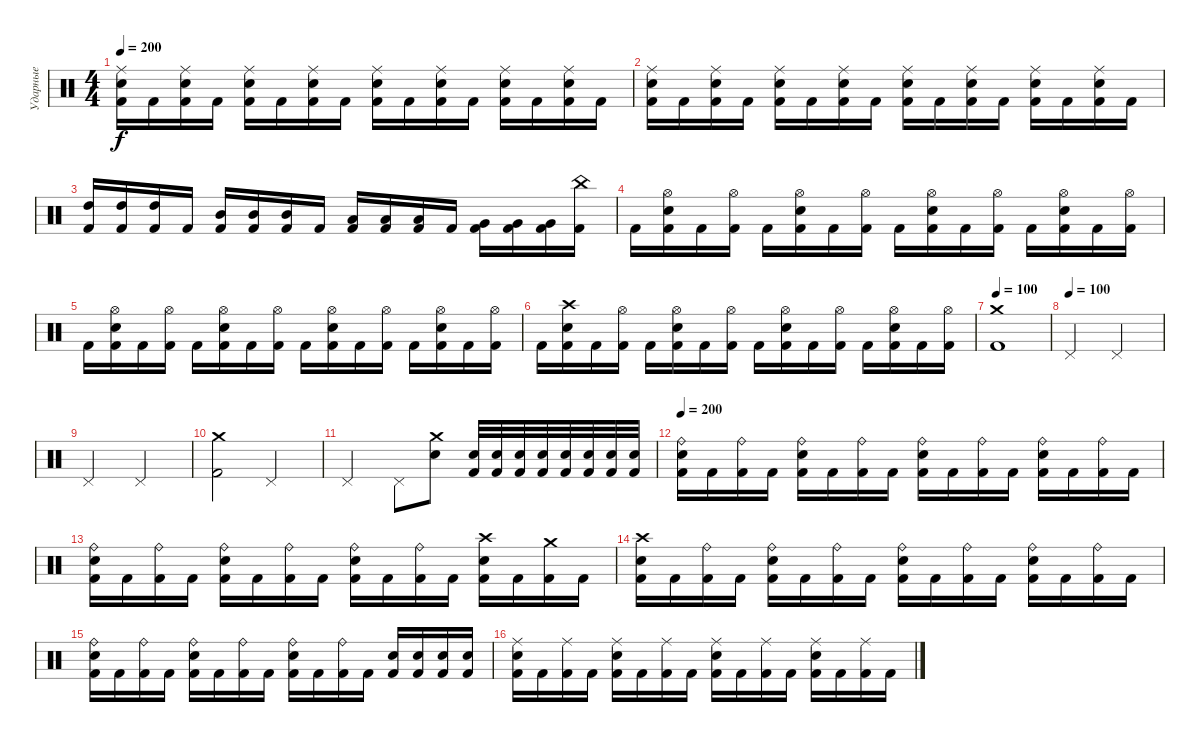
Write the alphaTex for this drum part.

\track ("Ударные" "Ударные") {instrument percussion}
\staff {score}
\articulation defaults
\ts (4 4)
\tempo 200
\clef neutral
\ks c
("Ride (middle)" "Snare (hit) 2" "Kick (hit) 2").16{dy f} "Kick (hit) 2".16 ("Ride (middle)" "Snare (hit) 2" "Kick (hit) 2").16 "Kick (hit) 2".16 ("Ride (middle)" "Snare (hit) 2" "Kick (hit) 2").16 "Kick (hit) 2".16 ("Ride (middle)" "Snare (hit) 2" "Kick (hit) 2").16 "Kick (hit) 2".16 ("Ride (middle)" "Snare (hit) 2" "Kick (hit) 2").16 "Kick (hit) 2".16 ("Ride (middle)" "Snare (hit) 2" "Kick (hit) 2").16 "Kick (hit) 2".16 ("Ride (middle)" "Snare (hit) 2" "Kick (hit) 2").16 "Kick (hit) 2".16 ("Ride (middle)" "Snare (hit) 2" "Kick (hit) 2").16 "Kick (hit) 2".16 |
("Ride (middle)" "Snare (hit) 2" "Kick (hit) 2").16 "Kick (hit) 2".16 ("Ride (middle)" "Snare (hit) 2" "Kick (hit) 2").16 "Kick (hit) 2".16 ("Ride (middle)" "Snare (hit) 2" "Kick (hit) 2").16 "Kick (hit) 2".16 ("Ride (middle)" "Snare (hit) 2" "Kick (hit) 2").16 "Kick (hit) 2".16 ("Ride (middle)" "Snare (hit) 2" "Kick (hit) 2").16 "Kick (hit) 2".16 ("Ride (middle)" "Snare (hit) 2" "Kick (hit) 2").16 "Kick (hit) 2".16 ("Ride (middle)" "Snare (hit) 2" "Kick (hit) 2").16 "Kick (hit) 2".16 ("Ride (middle)" "Snare (hit) 2" "Kick (hit) 2").16 "Kick (hit) 2".16 |
("High Tom (hit)" "Kick (hit) 2").16 ("High Tom (hit)" "Kick (hit) 2").16 ("High Tom (hit)" "Kick (hit) 2").16 "Kick (hit) 2".16 ("Mid Tom (hit)" "Kick (hit) 2").16 ("Mid Tom (hit)" "Kick (hit) 2").16 ("Mid Tom (hit)" "Kick (hit) 2").16 "Kick (hit) 2".16 ("Low Tom (hit)" "Kick (hit) 2").16 ("Low Tom (hit)" "Kick (hit) 2").16 ("Low Tom (hit)" "Kick (hit) 2").16 "Kick (hit) 2".16 ("Very Low Tom (hit)" "Kick (hit) 2").16 ("Very Low Tom (hit)" "Kick (hit) 2").16 ("Very Low Tom (hit)" "Kick (hit) 2").16 ("China (hit)" "Kick (hit) 2").16 |
"Kick (hit) 2".16 ("Hi-Hat (open)" "Snare (hit) 2" "Kick (hit) 2").16 "Kick (hit) 2".16 ("Hi-Hat (open)" "Kick (hit) 2").16 "Kick (hit) 2".16 ("Hi-Hat (open)" "Snare (hit) 2" "Kick (hit) 2").16 "Kick (hit) 2".16 ("Hi-Hat (open)" "Kick (hit) 2").16 "Kick (hit) 2".16 ("Hi-Hat (open)" "Snare (hit) 2" "Kick (hit) 2").16 "Kick (hit) 2".16 ("Hi-Hat (open)" "Kick (hit) 2").16 "Kick (hit) 2".16 ("Hi-Hat (open)" "Snare (hit) 2" "Kick (hit) 2").16 "Kick (hit) 2".16 ("Hi-Hat (open)" "Kick (hit) 2").16 |
"Kick (hit) 2".16 ("Hi-Hat (open)" "Snare (hit) 2" "Kick (hit) 2").16 "Kick (hit) 2".16 ("Hi-Hat (open)" "Kick (hit) 2").16 "Kick (hit) 2".16 ("Hi-Hat (open)" "Snare (hit) 2" "Kick (hit) 2").16 "Kick (hit) 2".16 ("Hi-Hat (open)" "Kick (hit) 2").16 "Kick (hit) 2".16 ("Hi-Hat (open)" "Snare (hit) 2" "Kick (hit) 2").16 "Kick (hit) 2".16 ("Hi-Hat (open)" "Kick (hit) 2").16 "Kick (hit) 2".16 ("Hi-Hat (open)" "Snare (hit) 2" "Kick (hit) 2").16 "Kick (hit) 2".16 ("Hi-Hat (open)" "Kick (hit) 2").16 |
"Kick (hit) 2".16 ("Crash high (hit)" "Snare (hit) 2" "Kick (hit) 2").16 "Kick (hit) 2".16 ("Hi-Hat (open)" "Kick (hit) 2").16 "Kick (hit) 2".16 ("Hi-Hat (open)" "Snare (hit) 2" "Kick (hit) 2").16 "Kick (hit) 2".16 ("Hi-Hat (open)" "Kick (hit) 2").16 "Kick (hit) 2".16 ("Hi-Hat (open)" "Snare (hit) 2" "Kick (hit) 2").16 "Kick (hit) 2".16 ("Hi-Hat (open)" "Kick (hit) 2").16 "Kick (hit) 2".16 ("Hi-Hat (open)" "Snare (hit) 2" "Kick (hit) 2").16 "Kick (hit) 2".16 ("Hi-Hat (open)" "Kick (hit) 2").16 |
\tempo 100
("Crash medium (hit)" "Kick (hit) 2").1 |
\tempo (100)
"Pedal Hi-Hat (hit)".2 "Pedal Hi-Hat (hit)".2 |
"Pedal Hi-Hat (hit)".2 "Pedal Hi-Hat (hit)".2 |
("Crash medium (hit)" "Kick (hit) 2").2 "Pedal Hi-Hat (hit)".2 |
"Pedal Hi-Hat (hit)".2 "Pedal Hi-Hat (hit)".8 ("Crash medium (hit)" "Snare (hit) 2").8 ("Snare (hit) 2" "Kick (hit) 2").32 ("Snare (hit) 2" "Kick (hit) 2").32 ("Snare (hit) 2" "Kick (hit) 2").32 ("Snare (hit) 2" "Kick (hit) 2").32 ("Snare (hit) 2" "Kick (hit) 2").32 ("Snare (hit) 2" "Kick (hit) 2").32 ("Snare (hit) 2" "Kick (hit) 2").32 ("Snare (hit) 2" "Kick (hit) 2").32 |
\tempo 200
("Ride (bell)" "Snare (hit) 2" "Kick (hit) 2").16 "Kick (hit) 2".16 ("Ride (bell)" "Kick (hit) 2").16 "Kick (hit) 2".16 ("Ride (bell)" "Snare (hit) 2" "Kick (hit) 2").16 "Kick (hit) 2".16 ("Ride (bell)" "Kick (hit) 2").16 "Kick (hit) 2".16 ("Ride (bell)" "Snare (hit) 2" "Kick (hit) 2").16 "Kick (hit) 2".16 ("Ride (bell)" "Kick (hit) 2").16 "Kick (hit) 2".16 ("Ride (bell)" "Snare (hit) 2" "Kick (hit) 2").16 "Kick (hit) 2".16 ("Ride (bell)" "Kick (hit) 2").16 "Kick (hit) 2".16 |
("Ride (bell)" "Snare (hit) 2" "Kick (hit) 2").16 "Kick (hit) 2".16 ("Ride (bell)" "Kick (hit) 2").16 "Kick (hit) 2".16 ("Ride (bell)" "Snare (hit) 2" "Kick (hit) 2").16 "Kick (hit) 2".16 ("Ride (bell)" "Kick (hit) 2").16 "Kick (hit) 2".16 ("Ride (bell)" "Snare (hit) 2" "Kick (hit) 2").16 "Kick (hit) 2".16 ("Ride (bell)" "Kick (hit) 2").16 "Kick (hit) 2".16 ("Crash high (hit)" "Snare (hit) 2" "Kick (hit) 2").16 "Kick (hit) 2".16 ("Crash medium (hit)" "Kick (hit) 2").16 "Kick (hit) 2".16 |
("Crash high (hit)" "Snare (hit) 2" "Kick (hit) 2").16 "Kick (hit) 2".16 ("Ride (bell)" "Kick (hit) 2").16 "Kick (hit) 2".16 ("Ride (bell)" "Snare (hit) 2" "Kick (hit) 2").16 "Kick (hit) 2".16 ("Ride (bell)" "Kick (hit) 2").16 "Kick (hit) 2".16 ("Ride (bell)" "Snare (hit) 2" "Kick (hit) 2").16 "Kick (hit) 2".16 ("Ride (bell)" "Kick (hit) 2").16 "Kick (hit) 2".16 ("Ride (bell)" "Snare (hit) 2" "Kick (hit) 2").16 "Kick (hit) 2".16 ("Ride (bell)" "Kick (hit) 2").16 "Kick (hit) 2".16 |
("Ride (bell)" "Snare (hit) 2" "Kick (hit) 2").16 "Kick (hit) 2".16 ("Ride (bell)" "Kick (hit) 2").16 "Kick (hit) 2".16 ("Ride (bell)" "Snare (hit) 2" "Kick (hit) 2").16 "Kick (hit) 2".16 ("Ride (bell)" "Kick (hit) 2").16 "Kick (hit) 2".16 ("Ride (bell)" "Snare (hit) 2" "Kick (hit) 2").16 "Kick (hit) 2".16 ("Ride (bell)" "Kick (hit) 2").16 "Kick (hit) 2".16 ("Snare (hit) 2" "Kick (hit) 2").16 ("Snare (hit) 2" "Kick (hit) 2").16 ("Snare (hit) 2" "Kick (hit) 2").16 ("Snare (hit) 2" "Kick (hit) 2").16 |
("Ride (middle)" "Snare (hit) 2" "Kick (hit) 2").16 "Kick (hit) 2".16 ("Ride (middle)" "Kick (hit) 2").16 "Kick (hit) 2".16 ("Ride (middle)" "Snare (hit) 2" "Kick (hit) 2").16 "Kick (hit) 2".16 ("Ride (middle)" "Kick (hit) 2").16 "Kick (hit) 2".16 ("Ride (middle)" "Snare (hit) 2" "Kick (hit) 2").16 "Kick (hit) 2".16 ("Ride (middle)" "Kick (hit) 2").16 "Kick (hit) 2".16 ("Ride (middle)" "Snare (hit) 2" "Kick (hit) 2").16 "Kick (hit) 2".16 ("Ride (middle)" "Kick (hit) 2").16 "Kick (hit) 2".16
